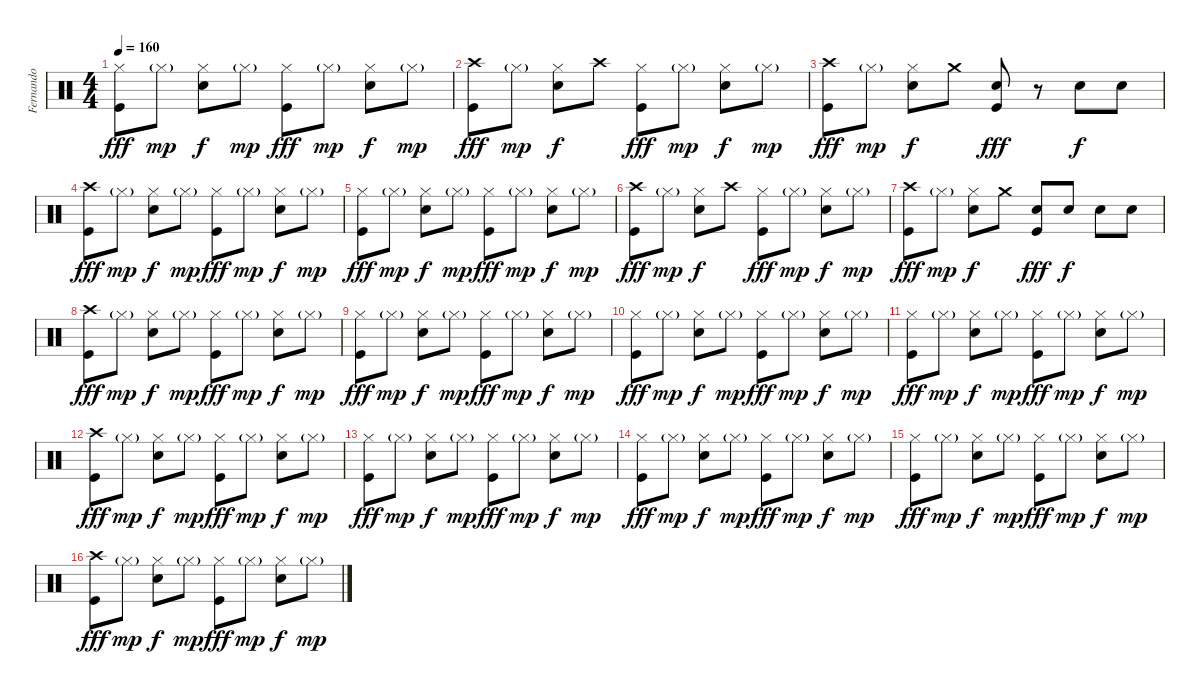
\track ("Fernando" "Fernando") {instrument percussion}
\staff {score}
\articulation defaults
\ts (4 4)
\tempo 160
\clef neutral
\ks c
("Hi-Hat (closed)" "Kick (hit)").8{dy fff} "Hi-Hat (closed)"{g}.8{dy mp} ("Hi-Hat (closed)" "Snare (hit) 2").8{dy f} "Hi-Hat (closed)"{g}.8{dy mp} ("Hi-Hat (closed)" "Kick (hit)").8{dy fff} "Hi-Hat (closed)"{g}.8{dy mp} ("Hi-Hat (closed)" "Snare (hit) 2").8{dy f} "Hi-Hat (closed)"{g}.8{dy mp} |
("Crash high (hit)" "Kick (hit)").8{dy fff} "Hi-Hat (closed)"{g}.8{dy mp} ("Hi-Hat (closed)" "Snare (hit) 2").8{dy f} "Crash high (hit)".8 ("Hi-Hat (closed)" "Kick (hit)").8{dy fff} "Hi-Hat (closed)"{g}.8{dy mp} ("Hi-Hat (closed)" "Snare (hit) 2").8{dy f} "Hi-Hat (closed)"{g}.8{dy mp} |
("Crash high (hit)" "Kick (hit)").8{dy fff} "Hi-Hat (closed)"{g}.8{dy mp} ("Hi-Hat (closed)" "Snare (hit) 2").8{dy f} "Crash medium (hit)".8 ("Snare (hit) 2" "Kick (hit)").8{dy fff} r.8 "Snare (hit) 2".8{dy f} "Snare (hit) 2".8 |
("Crash high (hit)" "Kick (hit)").8{dy fff} "Hi-Hat (closed)"{g}.8{dy mp} ("Hi-Hat (closed)" "Snare (hit) 2").8{dy f} "Hi-Hat (closed)"{g}.8{dy mp} ("Hi-Hat (closed)" "Kick (hit)").8{dy fff} "Hi-Hat (closed)"{g}.8{dy mp} ("Hi-Hat (closed)" "Snare (hit) 2").8{dy f} "Hi-Hat (closed)"{g}.8{dy mp} |
("Hi-Hat (closed)" "Kick (hit)").8{dy fff} "Hi-Hat (closed)"{g}.8{dy mp} ("Hi-Hat (closed)" "Snare (hit) 2").8{dy f} "Hi-Hat (closed)"{g}.8{dy mp} ("Hi-Hat (closed)" "Kick (hit)").8{dy fff} "Hi-Hat (closed)"{g}.8{dy mp} ("Hi-Hat (closed)" "Snare (hit) 2").8{dy f} "Hi-Hat (closed)"{g}.8{dy mp} |
("Crash high (hit)" "Kick (hit)").8{dy fff} "Hi-Hat (closed)"{g}.8{dy mp} ("Hi-Hat (closed)" "Snare (hit) 2").8{dy f} "Crash high (hit)".8 ("Hi-Hat (closed)" "Kick (hit)").8{dy fff} "Hi-Hat (closed)"{g}.8{dy mp} ("Hi-Hat (closed)" "Snare (hit) 2").8{dy f} "Hi-Hat (closed)"{g}.8{dy mp} |
("Crash high (hit)" "Kick (hit)").8{dy fff} "Hi-Hat (closed)"{g}.8{dy mp} ("Hi-Hat (closed)" "Snare (hit) 2").8{dy f} "Crash medium (hit)".8 ("Snare (hit) 2" "Kick (hit)").8{dy fff} "Snare (hit) 2".8{dy f} "Snare (hit) 2".8 "Snare (hit) 2".8 |
("Crash high (hit)" "Kick (hit)").8{dy fff} "Hi-Hat (closed)"{g}.8{dy mp} ("Hi-Hat (closed)" "Snare (hit) 2").8{dy f} "Hi-Hat (closed)"{g}.8{dy mp} ("Hi-Hat (closed)" "Kick (hit)").8{dy fff} "Hi-Hat (closed)"{g}.8{dy mp} ("Hi-Hat (closed)" "Snare (hit) 2").8{dy f} "Hi-Hat (closed)"{g}.8{dy mp} |
("Hi-Hat (closed)" "Kick (hit)").8{dy fff} "Hi-Hat (closed)"{g}.8{dy mp} ("Hi-Hat (closed)" "Snare (hit) 2").8{dy f} "Hi-Hat (closed)"{g}.8{dy mp} ("Hi-Hat (closed)" "Kick (hit)").8{dy fff} "Hi-Hat (closed)"{g}.8{dy mp} ("Hi-Hat (closed)" "Snare (hit) 2").8{dy f} "Hi-Hat (closed)"{g}.8{dy mp} |
("Hi-Hat (closed)" "Kick (hit)").8{dy fff} "Hi-Hat (closed)"{g}.8{dy mp} ("Hi-Hat (closed)" "Snare (hit) 2").8{dy f} "Hi-Hat (closed)"{g}.8{dy mp} ("Hi-Hat (closed)" "Kick (hit)").8{dy fff} "Hi-Hat (closed)"{g}.8{dy mp} ("Hi-Hat (closed)" "Snare (hit) 2").8{dy f} "Hi-Hat (closed)"{g}.8{dy mp} |
("Hi-Hat (closed)" "Kick (hit)").8{dy fff} "Hi-Hat (closed)"{g}.8{dy mp} ("Hi-Hat (closed)" "Snare (hit) 2").8{dy f} "Hi-Hat (closed)"{g}.8{dy mp} ("Hi-Hat (closed)" "Kick (hit)").8{dy fff} "Hi-Hat (closed)"{g}.8{dy mp} ("Hi-Hat (closed)" "Snare (hit) 2").8{dy f} "Hi-Hat (closed)"{g}.8{dy mp} |
("Crash high (hit)" "Kick (hit)").8{dy fff} "Hi-Hat (closed)"{g}.8{dy mp} ("Hi-Hat (closed)" "Snare (hit) 2").8{dy f} "Hi-Hat (closed)"{g}.8{dy mp} ("Hi-Hat (closed)" "Kick (hit)").8{dy fff} "Hi-Hat (closed)"{g}.8{dy mp} ("Hi-Hat (closed)" "Snare (hit) 2").8{dy f} "Hi-Hat (closed)"{g}.8{dy mp} |
("Hi-Hat (closed)" "Kick (hit)").8{dy fff} "Hi-Hat (closed)"{g}.8{dy mp} ("Hi-Hat (closed)" "Snare (hit) 2").8{dy f} "Hi-Hat (closed)"{g}.8{dy mp} ("Hi-Hat (closed)" "Kick (hit)").8{dy fff} "Hi-Hat (closed)"{g}.8{dy mp} ("Hi-Hat (closed)" "Snare (hit) 2").8{dy f} "Hi-Hat (closed)"{g}.8{dy mp} |
("Hi-Hat (closed)" "Kick (hit)").8{dy fff} "Hi-Hat (closed)"{g}.8{dy mp} ("Hi-Hat (closed)" "Snare (hit) 2").8{dy f} "Hi-Hat (closed)"{g}.8{dy mp} ("Hi-Hat (closed)" "Kick (hit)").8{dy fff} "Hi-Hat (closed)"{g}.8{dy mp} ("Hi-Hat (closed)" "Snare (hit) 2").8{dy f} "Hi-Hat (closed)"{g}.8{dy mp} |
("Hi-Hat (closed)" "Kick (hit)").8{dy fff} "Hi-Hat (closed)"{g}.8{dy mp} ("Hi-Hat (closed)" "Snare (hit) 2").8{dy f} "Hi-Hat (closed)"{g}.8{dy mp} ("Hi-Hat (closed)" "Kick (hit)").8{dy fff} "Hi-Hat (closed)"{g}.8{dy mp} ("Hi-Hat (closed)" "Snare (hit) 2").8{dy f} "Hi-Hat (closed)"{g}.8{dy mp} |
("Crash high (hit)" "Kick (hit)").8{dy fff} "Hi-Hat (closed)"{g}.8{dy mp} ("Hi-Hat (closed)" "Snare (hit) 2").8{dy f} "Hi-Hat (closed)"{g}.8{dy mp} ("Hi-Hat (closed)" "Kick (hit)").8{dy fff} "Hi-Hat (closed)"{g}.8{dy mp} ("Hi-Hat (closed)" "Snare (hit) 2").8{dy f} "Hi-Hat (closed)"{g}.8{dy mp}
